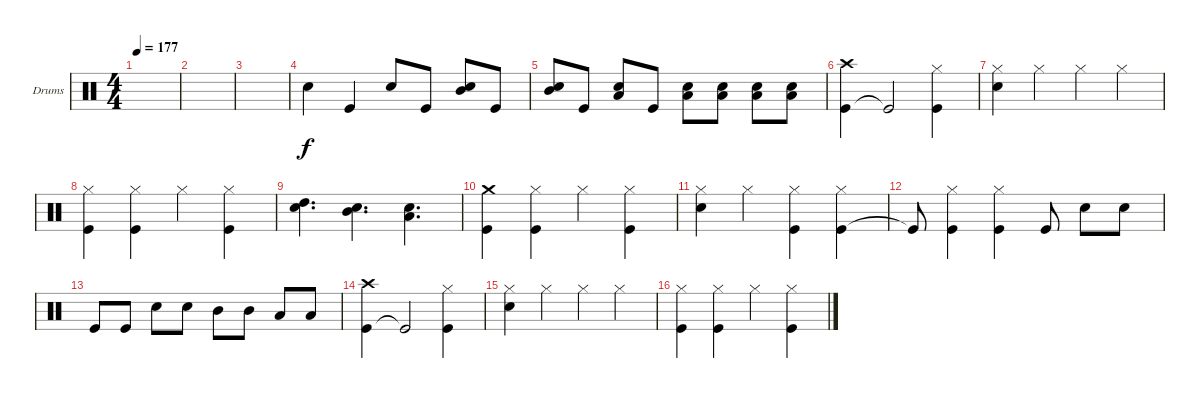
\defaultSystemsLayout 4
\bracketExtendMode groupsimilarinstruments
\firstSystemTrackNameOrientation horizontal
\otherSystemsTrackNameOrientation horizontal
\track ("Johnny Kelly" "Drums") {instrument percussion}
\staff {score}
\articulation defaults
\ts (4 4)
\scale
0.0842771
\tempo 177
\accidentals auto
\clef neutral
\ottava regular
\simile none
\ks c
|
\scale
0.124062 |
\scale
0.425454 |
\scale
0.365556 "Snare (hit) 2".4 "Kick (hit)".4 "Snare (hit) 2".8 "Kick (hit)".8 ("Snare (hit) 2" "Mid Tom (hit)").8 "Kick (hit)".8 |
("Snare (hit) 2" "Mid Tom (hit)").8 "Kick (hit)".8 ("Snare (hit) 2" "Low Tom (hit)").8 "Kick (hit)".8 ("Snare (hit) 2" "Low Tom (hit)").8 ("Low Tom (hit)" "Snare (hit) 2").8 ("Snare (hit) 2" "Low Tom (hit)").8 ("Low Tom (hit)" "Snare (hit) 2").8 |
("Kick (hit)" "Crash high (hit)").4 "Kick (hit)"{t}.2 ("Kick (hit)" "Hi-Hat (closed)").4 |
("Snare (hit) 2" "Hi-Hat (closed)").4 "Hi-Hat (closed)".4 "Hi-Hat (closed)".4 "Hi-Hat (closed)".4 |
("Kick (hit)" "Hi-Hat (closed)").4 ("Kick (hit)" "Hi-Hat (closed)").4 "Hi-Hat (closed)".4 ("Kick (hit)" "Hi-Hat (closed)").4 |
("Snare (hit) 2" "High Tom (hit)").4{d} ("Snare (hit) 2" "Mid Tom (hit)").4{d} ("Snare (hit) 2" "Low Tom (hit)").4{d} |
("Kick (hit)" "Crash medium (hit)").4 ("Kick (hit)" "Hi-Hat (closed)").4 "Hi-Hat (closed)".4 ("Kick (hit)" "Hi-Hat (closed)").4 |
("Snare (hit) 2" "Hi-Hat (closed)").4 "Hi-Hat (closed)".4 ("Kick (hit)" "Hi-Hat (closed)").4 ("Kick (hit)" "Hi-Hat (closed)").4 |
"Kick (hit)"{t}.8 ("Kick (hit)" "Hi-Hat (closed)").4 ("Kick (hit)" "Hi-Hat (closed)").4 "Kick (hit)".8 "Snare (hit) 2".8 "Snare (hit) 2".8 |
"Kick (hit)".8 "Kick (hit)".8 "Snare (hit) 2".8 "Snare (hit) 2".8 "Mid Tom (hit)".8 "Mid Tom (hit)".8 "Low Tom (hit)".8 "Low Tom (hit)".8 |
("Kick (hit)" "Crash high (hit)").4 "Kick (hit)"{t}.2 ("Kick (hit)" "Hi-Hat (closed)").4 |
("Snare (hit) 2" "Hi-Hat (closed)").4 "Hi-Hat (closed)".4 "Hi-Hat (closed)".4 "Hi-Hat (closed)".4 |
("Kick (hit)" "Hi-Hat (closed)").4 ("Kick (hit)" "Hi-Hat (closed)").4 "Hi-Hat (closed)".4 ("Kick (hit)" "Hi-Hat (closed)").4
